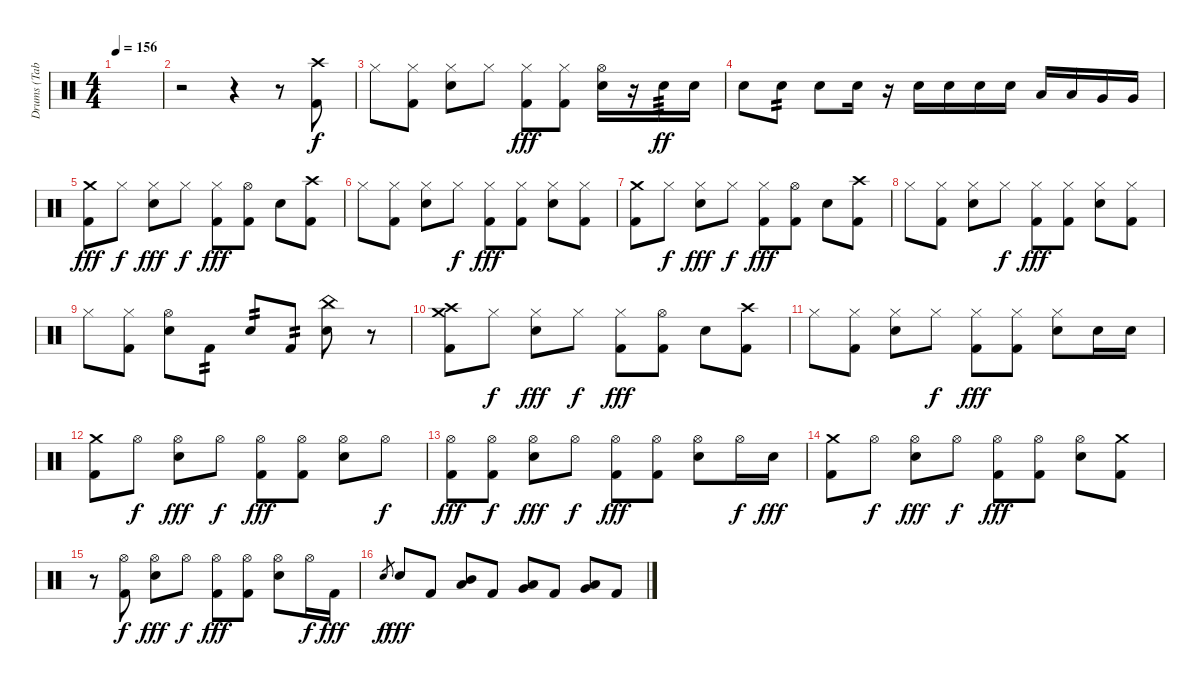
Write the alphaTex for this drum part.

\track ("Drums (Tab By Drumminger)" "Drums (Tab") {instrument percussion}
\staff {score}
\articulation defaults
\ts (4 4)
\tempo 156
\clef neutral
\ks c
|
r.2 r.4 r.8 ("Crash high (hit)" "Kick (hit) 2").8 |
"Hi-Hat (closed)".8 ("Hi-Hat (closed)" "Kick (hit) 2").8 ("Hi-Hat (closed)" "Snare (hit) 2").8 "Hi-Hat (closed)".8{dy f} ("Hi-Hat (closed)" "Kick (hit) 2").8{dy fff} ("Hi-Hat (closed)" "Kick (hit) 2").8 ("Hi-Hat (open)" "Snare (hit) 2").16 r.16 "Snare (hit) 2".16{tp 3 dy ff} "Snare (hit) 2".16 |
"Snare (hit) 2".8 "Snare (hit) 2".8{tp 2} "Snare (hit) 2".8 "Snare (hit) 2".16 r.16 "Snare (hit) 2".16 "Snare (hit) 2".16 "Snare (hit) 2".16 "Snare (hit) 2".16 "Low Tom (hit)".16 "Low Tom (hit)".16 "Very Low Tom (hit)".16 "Very Low Tom (hit)".16 |
("Crash medium (hit)" "Kick (hit) 2").8{dy fff} "Hi-Hat (closed)".8{dy f} ("Hi-Hat (closed)" "Snare (hit) 2").8{dy fff} "Hi-Hat (closed)".8{dy f} ("Hi-Hat (closed)" "Kick (hit) 2").8{dy fff} ("Hi-Hat (open)" "Kick (hit) 2").8 "Snare (hit) 2".8 ("Crash high (hit)" "Kick (hit) 2").8 |
"Hi-Hat (closed)".8 ("Hi-Hat (closed)" "Kick (hit) 2").8 ("Hi-Hat (closed)" "Snare (hit) 2").8 "Hi-Hat (closed)".8{dy f} ("Hi-Hat (closed)" "Kick (hit) 2").8{dy fff} ("Hi-Hat (closed)" "Kick (hit) 2").8 ("Hi-Hat (closed)" "Snare (hit) 2").8 ("Hi-Hat (closed)" "Kick (hit) 2").8 |
("Crash medium (hit)" "Kick (hit) 2").8 "Hi-Hat (closed)".8{dy f} ("Hi-Hat (closed)" "Snare (hit) 2").8{dy fff} "Hi-Hat (closed)".8{dy f} ("Hi-Hat (closed)" "Kick (hit) 2").8{dy fff} ("Hi-Hat (open)" "Kick (hit) 2").8 "Snare (hit) 2".8 ("Crash high (hit)" "Kick (hit) 2").8 |
"Hi-Hat (closed)".8 ("Hi-Hat (closed)" "Kick (hit) 2").8 ("Hi-Hat (closed)" "Snare (hit) 2").8 "Hi-Hat (closed)".8{dy f} ("Hi-Hat (closed)" "Kick (hit) 2").8{dy fff} ("Hi-Hat (closed)" "Kick (hit) 2").8 ("Hi-Hat (closed)" "Snare (hit) 2").8 ("Hi-Hat (closed)" "Kick (hit) 2").8 |
"Hi-Hat (closed)".8 ("Hi-Hat (closed)" "Kick (hit) 2").8 ("Hi-Hat (open)" "Snare (hit) 2").8 "Kick (hit) 2".8{tp 2} "Snare (hit) 2".8{tp 2} "Kick (hit) 2".8{tp 2} ("China (hit)" "Snare (hit) 2").8 r.8 |
("Crash medium (hit)" "Crash high (hit)" "Kick (hit) 2").8 "Hi-Hat (closed)".8{dy f} ("Hi-Hat (closed)" "Snare (hit) 2").8{dy fff} "Hi-Hat (closed)".8{dy f} ("Hi-Hat (closed)" "Kick (hit) 2").8{dy fff} ("Hi-Hat (open)" "Kick (hit) 2").8 "Snare (hit) 2".8 ("Crash high (hit)" "Kick (hit) 2").8 |
"Hi-Hat (closed)".8 ("Hi-Hat (closed)" "Kick (hit) 2").8 ("Hi-Hat (closed)" "Snare (hit) 2").8 "Hi-Hat (closed)".8{dy f} ("Hi-Hat (closed)" "Kick (hit) 2").8{dy fff} ("Hi-Hat (closed)" "Kick (hit) 2").8 ("Hi-Hat (closed)" "Snare (hit) 2").8 "Snare (hit) 2".16 "Snare (hit) 2".16 |
("Crash medium (hit)" "Kick (hit) 2").8 "Hi-Hat (open)".8{dy f} ("Hi-Hat (open)" "Snare (hit) 2").8{dy fff} "Hi-Hat (open)".8{dy f} ("Hi-Hat (open)" "Kick (hit) 2").8{dy fff} ("Hi-Hat (open)" "Kick (hit) 2").8 ("Hi-Hat (open)" "Snare (hit) 2").8 "Hi-Hat (open)".8{dy f} |
("Hi-Hat (open)" "Kick (hit) 2").8{dy fff} ("Hi-Hat (open)" "Kick (hit) 2").8{dy f} ("Hi-Hat (open)" "Snare (hit) 2").8{dy fff} "Hi-Hat (open)".8{dy f} ("Hi-Hat (open)" "Kick (hit) 2").8{dy fff} ("Hi-Hat (open)" "Kick (hit) 2").8 ("Hi-Hat (open)" "Snare (hit) 2").8 "Hi-Hat (open)".16{dy f} "Snare (hit) 2".16{dy fff} |
("Crash medium (hit)" "Kick (hit) 2").8 "Hi-Hat (open)".8{dy f} ("Hi-Hat (open)" "Snare (hit) 2").8{dy fff} "Hi-Hat (open)".8{dy f} ("Hi-Hat (open)" "Kick (hit) 2").8{dy fff} ("Hi-Hat (open)" "Kick (hit) 2").8 ("Hi-Hat (open)" "Snare (hit) 2").8 ("Crash medium (hit)" "Kick (hit) 2").8 |
r.8 ("Hi-Hat (open)" "Kick (hit) 2").8{dy f} ("Hi-Hat (open)" "Snare (hit) 2").8{dy fff} "Hi-Hat (open)".8{dy f} ("Hi-Hat (open)" "Kick (hit) 2").8{dy fff} ("Hi-Hat (open)" "Kick (hit) 2").8 ("Hi-Hat (open)" "Snare (hit) 2").8 "Hi-Hat (open)".16{dy f} "Kick (hit) 2".16{dy fff} |
"Snare (hit) 2".8{gr dy f} "Snare (hit) 2".8{dy fff} "Kick (hit) 2".8 ("Mid Tom (hit)" "Low Tom (hit)").8 "Kick (hit) 2".8 ("Low Tom (hit)" "Very Low Tom (hit)").8 "Kick (hit) 2".8 ("Very Low Tom (hit)" "Low Floor Tom (hit)").8 "Kick (hit) 2".8
